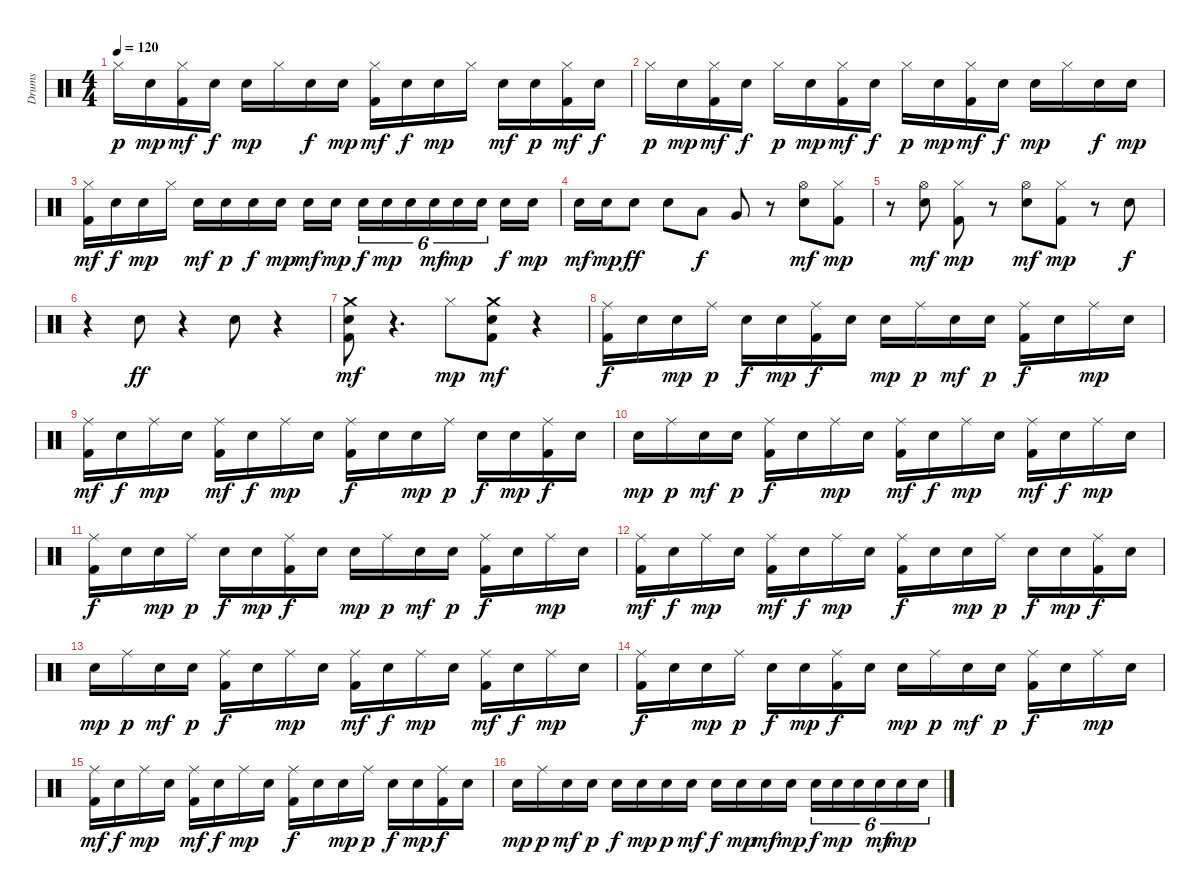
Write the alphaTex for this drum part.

\track ("Drums" "Drums") {instrument percussion}
\staff {score}
\articulation defaults
\ts (4 4)
\tempo 120
\clef neutral
\ks c "Hi-Hat (closed)".16{dy p} "Electric Snare (hit)".16{dy mp}
("Kick (hit) 2" "Hi-Hat (closed)").16{dy mf} "Electric Snare (hit)".16{dy f} "Electric Snare (hit)".16{dy mp} "Hi-Hat (closed)".16 "Electric Snare (hit)".16{dy f} "Electric Snare (hit)".16{dy mp} ("Kick (hit) 2" "Hi-Hat (closed)").16{dy mf} "Electric Snare (hit)".16{dy f} "Electric Snare (hit)".16{dy mp} "Hi-Hat (closed)".16 "Electric Snare (hit)".16{dy mf} "Electric Snare (hit)".16{dy p} ("Kick (hit) 2" "Hi-Hat (closed)").16{dy mf} "Electric Snare (hit)".16{dy f} |
"Hi-Hat (closed)".16{dy p} "Electric Snare (hit)".16{dy mp} ("Kick (hit) 2" "Hi-Hat (closed)").16{dy mf} "Electric Snare (hit)".16{dy f} "Hi-Hat (closed)".16{dy p} "Electric Snare (hit)".16{dy mp} ("Kick (hit) 2" "Hi-Hat (closed)").16{dy mf} "Electric Snare (hit)".16{dy f} "Hi-Hat (closed)".16{dy p} "Electric Snare (hit)".16{dy mp} ("Kick (hit) 2" "Hi-Hat (closed)").16{dy mf} "Electric Snare (hit)".16{dy f} "Electric Snare (hit)".16{dy mp} "Hi-Hat (closed)".16 "Electric Snare (hit)".16{dy f} "Electric Snare (hit)".16{dy mp} |
("Kick (hit) 2" "Hi-Hat (closed)").16{dy mf} "Electric Snare (hit)".16{dy f} "Electric Snare (hit)".16{dy mp} "Hi-Hat (closed)".16 "Electric Snare (hit)".16{dy mf} "Electric Snare (hit)".16{dy p} "Electric Snare (hit)".16{dy f} "Electric Snare (hit)".16{dy mp} "Electric Snare (hit)".16{dy mf} "Electric Snare (hit)".16{dy mp} "Electric Snare (hit)".16{tu (6 4) dy f} "Electric Snare (hit)".16{tu (6 4) dy mp} "Electric Snare (hit)".16{tu (6 4)} "Electric Snare (hit)".16{tu (6 4) dy mf} "Electric Snare (hit)".16{tu (6 4) dy mp} "Electric Snare (hit)".16{tu (6 4)} "Electric Snare (hit)".16{dy f} "Electric Snare (hit)".16{dy mp} |
"Electric Snare (hit)".16{dy mf} "Electric Snare (hit)".16{dy mp} "Electric Snare (hit)".8{dy ff} "Electric Snare (hit)".8 "Low Tom (hit)".8{dy f} "Very Low Tom (hit)".8 r.8 ("Electric Snare (hit)" "Hi-Hat (open)").8{dy mf} ("Kick (hit) 2" "Hi-Hat (closed)").8{dy mp} |
r.8 ("Electric Snare (hit)" "Hi-Hat (open)").8{dy mf} ("Kick (hit) 2" "Hi-Hat (closed)").8{dy mp} r.8 ("Electric Snare (hit)" "Hi-Hat (open)").8{dy mf} ("Kick (hit) 2" "Hi-Hat (closed)").8{dy mp} r.8 "Electric Snare (hit)".8{dy f} |
r.4 "Electric Snare (hit)".8{dy ff} r.4 "Electric Snare (hit)".8 r.4 |
("Kick (hit) 2" "Electric Snare (hit)" "Crash medium (hit)").8{dy mf} r.4{d} "Hi-Hat (closed)".8{dy mp} ("Kick (hit) 2" "Electric Snare (hit)" "Crash medium (hit)").8{dy mf} r.4 |
("Kick (hit) 2" "Ride (middle)").16{dy f} "Electric Snare (hit)".16 "Electric Snare (hit)".16{dy mp} "Ride (middle)".16{dy p} "Electric Snare (hit)".16{dy f} "Electric Snare (hit)".16{dy mp} ("Kick (hit) 2" "Ride (middle)").16{dy f} "Electric Snare (hit)".16 "Electric Snare (hit)".16{dy mp} "Ride (middle)".16{dy p} "Electric Snare (hit)".16{dy mf} "Electric Snare (hit)".16{dy p} ("Kick (hit) 2" "Ride (middle)").16{dy f} "Electric Snare (hit)".16 "Ride (middle)".16{dy mp} "Electric Snare (hit)".16 |
("Kick (hit) 2" "Ride (middle)").16{dy mf} "Electric Snare (hit)".16{dy f} "Ride (middle)".16{dy mp} "Electric Snare (hit)".16 ("Kick (hit) 2" "Ride (middle)").16{dy mf} "Electric Snare (hit)".16{dy f} "Ride (middle)".16{dy mp} "Electric Snare (hit)".16 ("Kick (hit) 2" "Ride (middle)").16{dy f} "Electric Snare (hit)".16 "Electric Snare (hit)".16{dy mp} "Ride (middle)".16{dy p} "Electric Snare (hit)".16{dy f} "Electric Snare (hit)".16{dy mp} ("Kick (hit) 2" "Ride (middle)").16{dy f} "Electric Snare (hit)".16 |
"Electric Snare (hit)".16{dy mp} "Ride (middle)".16{dy p} "Electric Snare (hit)".16{dy mf} "Electric Snare (hit)".16{dy p} ("Kick (hit) 2" "Ride (middle)").16{dy f} "Electric Snare (hit)".16 "Ride (middle)".16{dy mp} "Electric Snare (hit)".16 ("Kick (hit) 2" "Ride (middle)").16{dy mf} "Electric Snare (hit)".16{dy f} "Ride (middle)".16{dy mp} "Electric Snare (hit)".16 ("Kick (hit) 2" "Ride (middle)").16{dy mf} "Electric Snare (hit)".16{dy f} "Ride (middle)".16{dy mp} "Electric Snare (hit)".16 |
("Kick (hit) 2" "Ride (middle)").16{dy f} "Electric Snare (hit)".16 "Electric Snare (hit)".16{dy mp} "Ride (middle)".16{dy p} "Electric Snare (hit)".16{dy f} "Electric Snare (hit)".16{dy mp} ("Kick (hit) 2" "Ride (middle)").16{dy f} "Electric Snare (hit)".16 "Electric Snare (hit)".16{dy mp} "Ride (middle)".16{dy p} "Electric Snare (hit)".16{dy mf} "Electric Snare (hit)".16{dy p} ("Kick (hit) 2" "Ride (middle)").16{dy f} "Electric Snare (hit)".16 "Ride (middle)".16{dy mp} "Electric Snare (hit)".16 |
("Kick (hit) 2" "Ride (middle)").16{dy mf} "Electric Snare (hit)".16{dy f} "Ride (middle)".16{dy mp} "Electric Snare (hit)".16 ("Kick (hit) 2" "Ride (middle)").16{dy mf} "Electric Snare (hit)".16{dy f} "Ride (middle)".16{dy mp} "Electric Snare (hit)".16 ("Kick (hit) 2" "Ride (middle)").16{dy f} "Electric Snare (hit)".16 "Electric Snare (hit)".16{dy mp} "Ride (middle)".16{dy p} "Electric Snare (hit)".16{dy f} "Electric Snare (hit)".16{dy mp} ("Kick (hit) 2" "Ride (middle)").16{dy f} "Electric Snare (hit)".16 |
"Electric Snare (hit)".16{dy mp} "Ride (middle)".16{dy p} "Electric Snare (hit)".16{dy mf} "Electric Snare (hit)".16{dy p} ("Kick (hit) 2" "Ride (middle)").16{dy f} "Electric Snare (hit)".16 "Ride (middle)".16{dy mp} "Electric Snare (hit)".16 ("Kick (hit) 2" "Ride (middle)").16{dy mf} "Electric Snare (hit)".16{dy f} "Ride (middle)".16{dy mp} "Electric Snare (hit)".16 ("Kick (hit) 2" "Ride (middle)").16{dy mf} "Electric Snare (hit)".16{dy f} "Ride (middle)".16{dy mp} "Electric Snare (hit)".16 |
("Kick (hit) 2" "Ride (middle)").16{dy f} "Electric Snare (hit)".16 "Electric Snare (hit)".16{dy mp} "Ride (middle)".16{dy p} "Electric Snare (hit)".16{dy f} "Electric Snare (hit)".16{dy mp} ("Kick (hit) 2" "Ride (middle)").16{dy f} "Electric Snare (hit)".16 "Electric Snare (hit)".16{dy mp} "Ride (middle)".16{dy p} "Electric Snare (hit)".16{dy mf} "Electric Snare (hit)".16{dy p} ("Kick (hit) 2" "Ride (middle)").16{dy f} "Electric Snare (hit)".16 "Ride (middle)".16{dy mp} "Electric Snare (hit)".16 |
("Kick (hit) 2" "Ride (middle)").16{dy mf} "Electric Snare (hit)".16{dy f} "Ride (middle)".16{dy mp} "Electric Snare (hit)".16 ("Kick (hit) 2" "Ride (middle)").16{dy mf} "Electric Snare (hit)".16{dy f} "Ride (middle)".16{dy mp} "Electric Snare (hit)".16 ("Kick (hit) 2" "Ride (middle)").16{dy f} "Electric Snare (hit)".16 "Electric Snare (hit)".16{dy mp} "Ride (middle)".16{dy p} "Electric Snare (hit)".16{dy f} "Electric Snare (hit)".16{dy mp} ("Kick (hit) 2" "Ride (middle)").16{dy f} "Electric Snare (hit)".16 |
"Electric Snare (hit)".16{dy mp} "Ride (middle)".16{dy p} "Electric Snare (hit)".16{dy mf} "Electric Snare (hit)".16{dy p} "Electric Snare (hit)".16{dy f} "Electric Snare (hit)".16{dy mp} "Electric Snare (hit)".16{dy p} "Electric Snare (hit)".16{dy mf} "Electric Snare (hit)".16{dy f} "Electric Snare (hit)".16{dy mp} "Electric Snare (hit)".16{dy mf} "Electric Snare (hit)".16{dy mp} "Electric Snare (hit)".16{tu (6 4) dy f} "Electric Snare (hit)".16{tu (6 4) dy mp} "Electric Snare (hit)".16{tu (6 4)} "Electric Snare (hit)".16{tu (6 4) dy mf} "Electric Snare (hit)".16{tu (6 4) dy mp} "Electric Snare (hit)".16{tu (6 4)}
